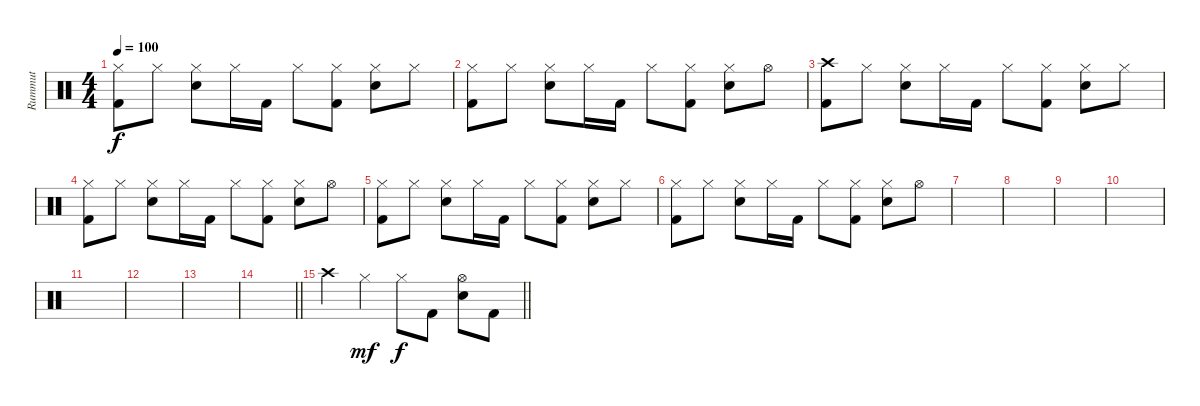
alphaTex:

\track ("Rummut" "Rummut") {instrument percussion}
\staff {score}
\articulation defaults
\ts (4 4)
\tempo 100
\clef neutral
\ks c
("Hi-Hat (closed)" "Kick (hit) 2").8{dy f} "Hi-Hat (closed)".8 ("Hi-Hat (closed)" "Snare (hit) 2").8 "Hi-Hat (closed)".16 "Kick (hit) 2".16 "Hi-Hat (closed)".8 ("Hi-Hat (closed)" "Kick (hit) 2").8 ("Hi-Hat (closed)" "Snare (hit) 2").8 "Hi-Hat (closed)".8 |
("Hi-Hat (closed)" "Kick (hit) 2").8 "Hi-Hat (closed)".8 ("Hi-Hat (closed)" "Snare (hit) 2").8 "Hi-Hat (closed)".16 "Kick (hit) 2".16 "Hi-Hat (closed)".8 ("Hi-Hat (closed)" "Kick (hit) 2").8 ("Hi-Hat (closed)" "Snare (hit) 2").8 "Hi-Hat (open)".8 |
("Crash high (hit)" "Kick (hit) 2").8 "Hi-Hat (closed)".8 ("Hi-Hat (closed)" "Snare (hit) 2").8 "Hi-Hat (closed)".16 "Kick (hit) 2".16 "Hi-Hat (closed)".8 ("Hi-Hat (closed)" "Kick (hit) 2").8 ("Hi-Hat (closed)" "Snare (hit) 2").8 "Hi-Hat (closed)".8 |
("Hi-Hat (closed)" "Kick (hit) 2").8 "Hi-Hat (closed)".8 ("Hi-Hat (closed)" "Snare (hit) 2").8 "Hi-Hat (closed)".16 "Kick (hit) 2".16 "Hi-Hat (closed)".8 ("Hi-Hat (closed)" "Kick (hit) 2").8 ("Hi-Hat (closed)" "Snare (hit) 2").8 "Hi-Hat (open)".8 |
("Hi-Hat (closed)" "Kick (hit) 2").8 "Hi-Hat (closed)".8 ("Hi-Hat (closed)" "Snare (hit) 2").8 "Hi-Hat (closed)".16 "Kick (hit) 2".16 "Hi-Hat (closed)".8 ("Hi-Hat (closed)" "Kick (hit) 2").8 ("Hi-Hat (closed)" "Snare (hit) 2").8 "Hi-Hat (closed)".8 |
("Hi-Hat (closed)" "Kick (hit) 2").8 "Hi-Hat (closed)".8 ("Hi-Hat (closed)" "Snare (hit) 2").8 "Hi-Hat (closed)".16 "Kick (hit) 2".16 "Hi-Hat (closed)".8 ("Hi-Hat (closed)" "Kick (hit) 2").8 ("Hi-Hat (closed)" "Snare (hit) 2").8 "Hi-Hat (open)".8 |
|
|
|
|
|
|
|
\barLineRight lightlight
|
\barLineRight lightlight "Crash high (hit)".4 "Hi-Hat (closed)".4{dy mf} "Hi-Hat (closed)".8{dy f} "Kick (hit) 2".8
("Hi-Hat (open)" "Snare (hit) 2").8 "Kick (hit) 2".8
